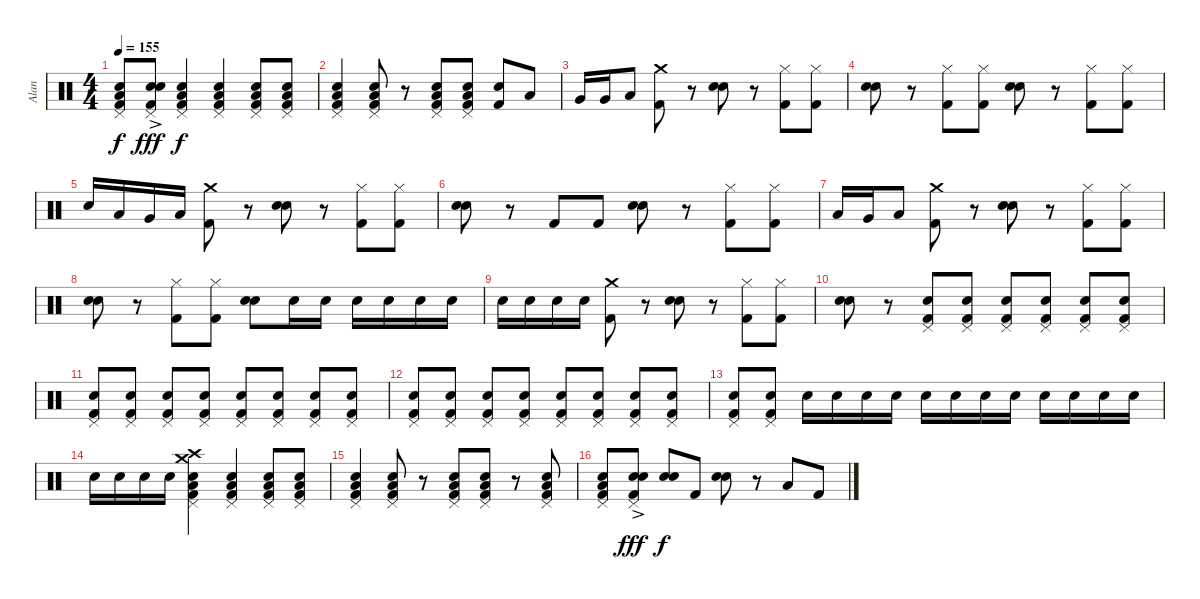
\track ("Alan" "Alan") {instrument percussion}
\staff {score}
\articulation defaults
\ts (4 4)
\tempo 155
\clef neutral
\ks c
("Kick (hit) 2" "Low Floor Tom (hit)" "Snare (hit) 2" "Pedal Hi-Hat (hit)").8{dy f} ("Kick (hit) 2"{ac} "Snare (hit) 2" "Snare (hit) 2" "Pedal Hi-Hat (hit)").8{dy fff volume 16} ("Kick (hit) 2" "Low Floor Tom (hit)" "Snare (hit) 2" "Pedal Hi-Hat (hit)").4{dy f volume 11} ("Kick (hit) 2" "Low Floor Tom (hit)" "Snare (hit) 2" "Pedal Hi-Hat (hit)").4 ("Kick (hit) 2" "Low Floor Tom (hit)" "Snare (hit) 2" "Pedal Hi-Hat (hit)").8 ("Kick (hit) 2" "Low Floor Tom (hit)" "Snare (hit) 2" "Pedal Hi-Hat (hit)").8 |
("Kick (hit) 2" "Low Floor Tom (hit)" "Snare (hit) 2" "Pedal Hi-Hat (hit)").4 ("Kick (hit) 2" "Low Floor Tom (hit)" "Snare (hit) 2" "Pedal Hi-Hat (hit)").8 r.8 ("Kick (hit) 2" "Low Floor Tom (hit)" "Snare (hit) 2" "Pedal Hi-Hat (hit)").8 ("Kick (hit) 2" "Low Floor Tom (hit)" "Snare (hit) 2" "Pedal Hi-Hat (hit)").8 ("Kick (hit) 2" "Snare (hit) 2").8 "Low Tom (hit)".8 |
"Very Low Tom (hit)".16 "Very Low Tom (hit)".16 "Low Floor Tom (hit)".8 ("Crash medium (hit)" "Kick (hit) 2").8 r.8 ("Snare (hit) 2" "Snare (hit) 2").8 r.8 ("Hi-Hat (closed)" "Kick (hit) 2").8 ("Hi-Hat (closed)" "Kick (hit) 2").8 |
("Snare (hit) 2" "Snare (hit) 2").8 r.8 ("Hi-Hat (closed)" "Kick (hit) 2").8 ("Hi-Hat (closed)" "Kick (hit) 2").8 ("Snare (hit) 2" "Snare (hit) 2").8 r.8 ("Hi-Hat (closed)" "Kick (hit) 2").8 ("Hi-Hat (closed)" "Kick (hit) 2").8 |
"Snare (hit) 2".16 "Low Tom (hit)".16 "Very Low Tom (hit)".16 "Low Floor Tom (hit)".16 ("Kick (hit) 2" "Crash medium (hit)").8 r.8 ("Snare (hit) 2" "Snare (hit) 2").8 r.8 ("Hi-Hat (closed)" "Kick (hit) 2").8 ("Hi-Hat (closed)" "Kick (hit) 2").8 |
("Snare (hit) 2" "Snare (hit) 2").8 r.8 "Kick (hit) 2".8 "Kick (hit) 2".8 ("Snare (hit) 2" "Snare (hit) 2").8 r.8 ("Hi-Hat (closed)" "Kick (hit) 2").8 ("Hi-Hat (closed)" "Kick (hit) 2").8 |
"Low Tom (hit)".16 "Very Low Tom (hit)".16 "Low Floor Tom (hit)".8 ("Kick (hit) 2" "Crash medium (hit)").8 r.8 ("Snare (hit) 2" "Snare (hit) 2").8 r.8 ("Hi-Hat (closed)" "Kick (hit) 2").8 ("Hi-Hat (closed)" "Kick (hit) 2").8 |
("Snare (hit) 2" "Snare (hit) 2").8 r.8 ("Hi-Hat (closed)" "Kick (hit) 2").8 ("Hi-Hat (closed)" "Kick (hit) 2").8 ("Snare (hit) 2" "Snare (hit) 2").8 "Snare (hit) 2".16{volume 16} "Snare (hit) 2".16 "Snare (hit) 2".16 "Snare (hit) 2".16 "Snare (hit) 2".16 "Snare (hit) 2".16 |
"Snare (hit) 2".16 "Snare (hit) 2".16 "Snare (hit) 2".16 "Snare (hit) 2".16 ("Kick (hit) 2" "Crash medium (hit)").8{volume 11} r.8 ("Snare (hit) 2" "Snare (hit) 2").8 r.8 ("Hi-Hat (closed)" "Kick (hit) 2").8 ("Hi-Hat (closed)" "Kick (hit) 2").8 |
("Snare (hit) 2" "Snare (hit) 2").8 r.8 ("Snare (hit) 2" "Pedal Hi-Hat (hit)" "Kick (hit) 2").8{volume 4} ("Snare (hit) 2" "Pedal Hi-Hat (hit)" "Kick (hit) 2").8 ("Snare (hit) 2" "Pedal Hi-Hat (hit)" "Kick (hit) 2").8 ("Snare (hit) 2" "Pedal Hi-Hat (hit)" "Kick (hit) 2").8 ("Snare (hit) 2" "Pedal Hi-Hat (hit)" "Kick (hit) 2").8 ("Snare (hit) 2" "Pedal Hi-Hat (hit)" "Kick (hit) 2").8 |
("Snare (hit) 2" "Pedal Hi-Hat (hit)" "Kick (hit) 2").8{volume 6} ("Snare (hit) 2" "Pedal Hi-Hat (hit)" "Kick (hit) 2").8 ("Snare (hit) 2" "Pedal Hi-Hat (hit)" "Kick (hit) 2").8 ("Snare (hit) 2" "Pedal Hi-Hat (hit)" "Kick (hit) 2").8 ("Snare (hit) 2" "Pedal Hi-Hat (hit)" "Kick (hit) 2").8 ("Snare (hit) 2" "Pedal Hi-Hat (hit)" "Kick (hit) 2").8 ("Snare (hit) 2" "Pedal Hi-Hat (hit)" "Kick (hit) 2").8 ("Snare (hit) 2" "Pedal Hi-Hat (hit)" "Kick (hit) 2").8 |
("Snare (hit) 2" "Pedal Hi-Hat (hit)" "Kick (hit) 2").8{volume 8} ("Snare (hit) 2" "Pedal Hi-Hat (hit)" "Kick (hit) 2").8 ("Snare (hit) 2" "Pedal Hi-Hat (hit)" "Kick (hit) 2").8 ("Snare (hit) 2" "Pedal Hi-Hat (hit)" "Kick (hit) 2").8 ("Snare (hit) 2" "Pedal Hi-Hat (hit)" "Kick (hit) 2").8 ("Snare (hit) 2" "Pedal Hi-Hat (hit)" "Kick (hit) 2").8 ("Snare (hit) 2" "Pedal Hi-Hat (hit)" "Kick (hit) 2").8 ("Snare (hit) 2" "Pedal Hi-Hat (hit)" "Kick (hit) 2").8 |
("Snare (hit) 2" "Pedal Hi-Hat (hit)" "Kick (hit) 2").8{volume 11} ("Snare (hit) 2" "Pedal Hi-Hat (hit)" "Kick (hit) 2").8 "Snare (hit) 2".16{volume 16} "Snare (hit) 2".16 "Snare (hit) 2".16 "Snare (hit) 2".16 "Snare (hit) 2".16 "Snare (hit) 2".16 "Snare (hit) 2".16 "Snare (hit) 2".16 "Snare (hit) 2".16 "Snare (hit) 2".16 "Snare (hit) 2".16 "Snare (hit) 2".16 |
"Snare (hit) 2".16 "Snare (hit) 2".16 "Snare (hit) 2".16 "Snare (hit) 2".16 ("Kick (hit) 2" "Snare (hit) 2" "Low Floor Tom (hit)" "Pedal Hi-Hat (hit)" "Crash medium (hit)" "Crash high (hit)").4{volume 11} ("Kick (hit) 2" "Low Floor Tom (hit)" "Snare (hit) 2" "Pedal Hi-Hat (hit)").4 ("Kick (hit) 2" "Low Floor Tom (hit)" "Snare (hit) 2" "Pedal Hi-Hat (hit)").8 ("Kick (hit) 2" "Low Floor Tom (hit)" "Snare (hit) 2" "Pedal Hi-Hat (hit)").8 |
("Kick (hit) 2" "Low Floor Tom (hit)" "Snare (hit) 2" "Pedal Hi-Hat (hit)").4 ("Kick (hit) 2" "Low Floor Tom (hit)" "Snare (hit) 2" "Pedal Hi-Hat (hit)").8 r.8 ("Kick (hit) 2" "Low Floor Tom (hit)" "Snare (hit) 2" "Pedal Hi-Hat (hit)").8 ("Kick (hit) 2" "Low Floor Tom (hit)" "Snare (hit) 2" "Pedal Hi-Hat (hit)").8 r.8 ("Kick (hit) 2" "Low Floor Tom (hit)" "Snare (hit) 2" "Pedal Hi-Hat (hit)").8 |
("Kick (hit) 2" "Low Floor Tom (hit)" "Snare (hit) 2" "Pedal Hi-Hat (hit)").8 ("Kick (hit) 2"{ac} "Snare (hit) 2" "Snare (hit) 2" "Pedal Hi-Hat (hit)").8{dy fff volume 16} ("Snare (hit) 2" "Snare (hit) 2").8{dy f volume 11} "Kick (hit) 2".8 ("Snare (hit) 2" "Snare (hit) 2").8 r.8 "Low Tom (hit)".8 "Kick (hit) 2".8
